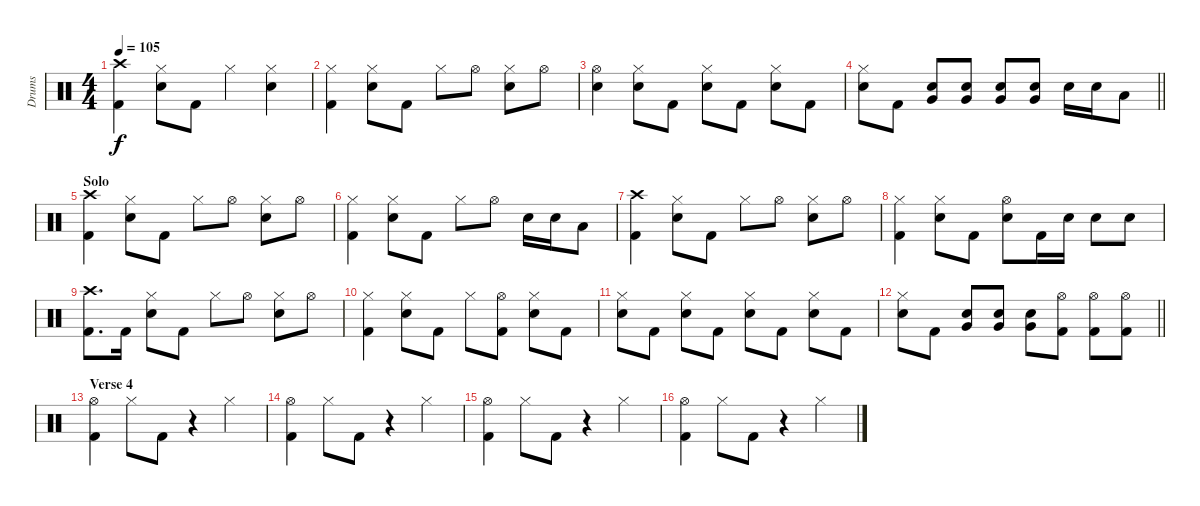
\track ("Drums" "Drums") {instrument percussion}
\staff {score}
\articulation defaults
\ts (4 4)
\tempo 105
\clef neutral
\ks c
("Crash high (hit)" "Kick (hit) 2").4{dy f} ("Hi-Hat (closed)" "Snare (hit) 2").8 "Kick (hit) 2".8 "Hi-Hat (closed)".4 ("Hi-Hat (closed)" "Snare (hit) 2").4 |
("Hi-Hat (closed)" "Kick (hit) 2").4 ("Hi-Hat (closed)" "Snare (hit) 2").8 "Kick (hit) 2".8 "Hi-Hat (closed)".8 "Hi-Hat (open)".8 ("Hi-Hat (closed)" "Snare (hit) 2").8 "Hi-Hat (open)".8 |
("Hi-Hat (open)" "Snare (hit) 2").4 ("Hi-Hat (closed)" "Snare (hit) 2").8 "Kick (hit) 2".8 ("Hi-Hat (closed)" "Snare (hit) 2").8 "Kick (hit) 2".8 ("Hi-Hat (closed)" "Snare (hit) 2").8 "Kick (hit) 2".8 |
\barLineRight lightlight
("Hi-Hat (closed)" "Snare (hit) 2").8 "Kick (hit) 2".8 ("Snare (hit) 2" "Very Low Tom (hit)").8 ("Snare (hit) 2" "Very Low Tom (hit)").8 ("Snare (hit) 2" "Very Low Tom (hit)").8 ("Snare (hit) 2" "Very Low Tom (hit)").8 "Snare (hit) 2".16 "Snare (hit) 2".16 "Low Tom (hit)".8 |
\section ("" "Solo")
("Crash high (hit)" "Kick (hit) 2").4 ("Hi-Hat (closed)" "Snare (hit) 2").8 "Kick (hit) 2".8 "Hi-Hat (closed)".8 "Hi-Hat (open)".8 ("Hi-Hat (closed)" "Snare (hit) 2").8 "Hi-Hat (open)".8 |
("Hi-Hat (closed)" "Kick (hit) 2").4 ("Hi-Hat (closed)" "Snare (hit) 2").8 "Kick (hit) 2".8 "Hi-Hat (closed)".8 "Hi-Hat (open)".8 "Snare (hit) 2".16 "Snare (hit) 2".16 "Low Tom (hit)".8 |
("Crash high (hit)" "Kick (hit) 2").4 ("Hi-Hat (closed)" "Snare (hit) 2").8 "Kick (hit) 2".8 "Hi-Hat (closed)".8 "Hi-Hat (open)".8 ("Hi-Hat (closed)" "Snare (hit) 2").8 "Hi-Hat (open)".8 |
("Hi-Hat (closed)" "Kick (hit) 2").4 ("Hi-Hat (closed)" "Snare (hit) 2").8 "Kick (hit) 2".8 ("Hi-Hat (open)" "Snare (hit) 2").8 "Kick (hit) 2".16 "Snare (hit) 2".16 "Snare (hit) 2".8 "Snare (hit) 2".8 |
("Crash high (hit)" "Kick (hit) 2").8{d} "Kick (hit) 2".16 ("Hi-Hat (closed)" "Snare (hit) 2").8 "Kick (hit) 2".8 "Hi-Hat (closed)".8 "Hi-Hat (open)".8 ("Hi-Hat (closed)" "Snare (hit) 2").8 "Hi-Hat (open)".8 |
("Hi-Hat (closed)" "Kick (hit) 2").4 ("Hi-Hat (closed)" "Snare (hit) 2").8 "Kick (hit) 2".8 "Hi-Hat (closed)".8 ("Hi-Hat (open)" "Kick (hit) 2").8 ("Hi-Hat (closed)" "Snare (hit) 2").8 "Kick (hit) 2".8 |
("Hi-Hat (closed)" "Snare (hit) 2").8 "Kick (hit) 2".8 ("Hi-Hat (closed)" "Snare (hit) 2").8 "Kick (hit) 2".8 ("Hi-Hat (closed)" "Snare (hit) 2").8 "Kick (hit) 2".8 ("Hi-Hat (closed)" "Snare (hit) 2").8 "Kick (hit) 2".8 |
\barLineRight lightlight
("Hi-Hat (closed)" "Snare (hit) 2").8 "Kick (hit) 2".8 ("Snare (hit) 2" "Very Low Tom (hit)").8 ("Snare (hit) 2" "Very Low Tom (hit)").8 ("Snare (hit) 2" "Very Low Tom (hit)").8 ("Hi-Hat (open)" "Kick (hit) 2").8 ("Hi-Hat (open)" "Kick (hit) 2").8 ("Hi-Hat (open)" "Kick (hit) 2").8 |
\section ("" "Verse 4")
("Hi-Hat (open)" "Kick (hit) 2").4 "Hi-Hat (closed)".8 "Kick (hit) 2".8 r.4 "Hi-Hat (closed)".4 |
("Hi-Hat (open)" "Kick (hit) 2").4 "Hi-Hat (closed)".8 "Kick (hit) 2".8 r.4 "Hi-Hat (closed)".4 |
("Hi-Hat (open)" "Kick (hit) 2").4 "Hi-Hat (closed)".8 "Kick (hit) 2".8 r.4 "Hi-Hat (closed)".4 |
("Hi-Hat (open)" "Kick (hit) 2").4 "Hi-Hat (closed)".8 "Kick (hit) 2".8 r.4 "Hi-Hat (closed)".4
